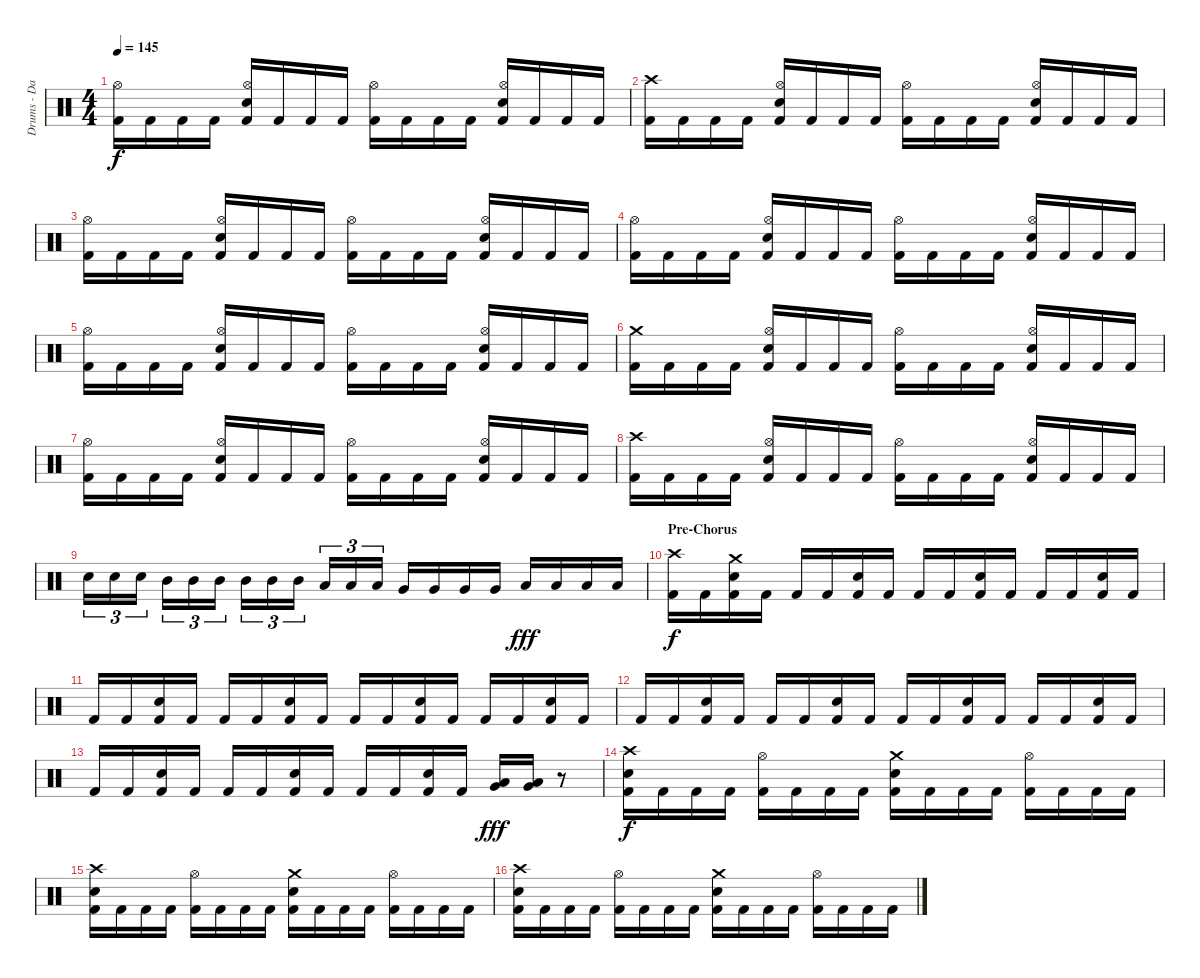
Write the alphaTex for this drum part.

\track ("Drums - Daniel Zimmermann" "Drums - Da") {instrument percussion}
\staff {score}
\articulation defaults
\ts (4 4)
\tempo 145
\clef neutral
\ks c
("Kick (hit) 2" "Hi-Hat (open)").16{dy f} "Kick (hit) 2".16 "Kick (hit) 2".16 "Kick (hit) 2".16 ("Kick (hit) 2" "Electric Snare (hit)" "Hi-Hat (open)").16 "Kick (hit) 2".16 "Kick (hit) 2".16 "Kick (hit) 2".16 ("Kick (hit) 2" "Hi-Hat (open)").16 "Kick (hit) 2".16 "Kick (hit) 2".16 "Kick (hit) 2".16 ("Kick (hit) 2" "Electric Snare (hit)" "Hi-Hat (open)").16 "Kick (hit) 2".16 "Kick (hit) 2".16 "Kick (hit) 2".16 |
("Kick (hit) 2" "Crash high (hit)").16 "Kick (hit) 2".16 "Kick (hit) 2".16 "Kick (hit) 2".16 ("Kick (hit) 2" "Electric Snare (hit)" "Hi-Hat (open)").16 "Kick (hit) 2".16 "Kick (hit) 2".16 "Kick (hit) 2".16 ("Kick (hit) 2" "Hi-Hat (open)").16 "Kick (hit) 2".16 "Kick (hit) 2".16 "Kick (hit) 2".16 ("Kick (hit) 2" "Electric Snare (hit)" "Hi-Hat (open)").16 "Kick (hit) 2".16 "Kick (hit) 2".16 "Kick (hit) 2".16 |
("Kick (hit) 2" "Hi-Hat (open)").16 "Kick (hit) 2".16 "Kick (hit) 2".16 "Kick (hit) 2".16 ("Kick (hit) 2" "Electric Snare (hit)" "Hi-Hat (open)").16 "Kick (hit) 2".16 "Kick (hit) 2".16 "Kick (hit) 2".16 ("Kick (hit) 2" "Hi-Hat (open)").16 "Kick (hit) 2".16 "Kick (hit) 2".16 "Kick (hit) 2".16 ("Kick (hit) 2" "Electric Snare (hit)" "Hi-Hat (open)").16 "Kick (hit) 2".16 "Kick (hit) 2".16 "Kick (hit) 2".16 |
("Kick (hit) 2" "Hi-Hat (open)").16 "Kick (hit) 2".16 "Kick (hit) 2".16 "Kick (hit) 2".16 ("Kick (hit) 2" "Electric Snare (hit)" "Hi-Hat (open)").16 "Kick (hit) 2".16 "Kick (hit) 2".16 "Kick (hit) 2".16 ("Kick (hit) 2" "Hi-Hat (open)").16 "Kick (hit) 2".16 "Kick (hit) 2".16 "Kick (hit) 2".16 ("Kick (hit) 2" "Electric Snare (hit)" "Hi-Hat (open)").16 "Kick (hit) 2".16 "Kick (hit) 2".16 "Kick (hit) 2".16 |
("Kick (hit) 2" "Hi-Hat (open)").16 "Kick (hit) 2".16 "Kick (hit) 2".16 "Kick (hit) 2".16 ("Kick (hit) 2" "Electric Snare (hit)" "Hi-Hat (open)").16 "Kick (hit) 2".16 "Kick (hit) 2".16 "Kick (hit) 2".16 ("Kick (hit) 2" "Hi-Hat (open)").16 "Kick (hit) 2".16 "Kick (hit) 2".16 "Kick (hit) 2".16 ("Kick (hit) 2" "Electric Snare (hit)" "Hi-Hat (open)").16 "Kick (hit) 2".16 "Kick (hit) 2".16 "Kick (hit) 2".16 |
("Kick (hit) 2" "Crash medium (hit)").16 "Kick (hit) 2".16 "Kick (hit) 2".16 "Kick (hit) 2".16 ("Kick (hit) 2" "Electric Snare (hit)" "Hi-Hat (open)").16 "Kick (hit) 2".16 "Kick (hit) 2".16 "Kick (hit) 2".16 ("Kick (hit) 2" "Hi-Hat (open)").16 "Kick (hit) 2".16 "Kick (hit) 2".16 "Kick (hit) 2".16 ("Kick (hit) 2" "Electric Snare (hit)" "Hi-Hat (open)").16 "Kick (hit) 2".16 "Kick (hit) 2".16 "Kick (hit) 2".16 |
("Kick (hit) 2" "Hi-Hat (open)").16 "Kick (hit) 2".16 "Kick (hit) 2".16 "Kick (hit) 2".16 ("Kick (hit) 2" "Electric Snare (hit)" "Hi-Hat (open)").16 "Kick (hit) 2".16 "Kick (hit) 2".16 "Kick (hit) 2".16 ("Kick (hit) 2" "Hi-Hat (open)").16 "Kick (hit) 2".16 "Kick (hit) 2".16 "Kick (hit) 2".16 ("Kick (hit) 2" "Electric Snare (hit)" "Hi-Hat (open)").16 "Kick (hit) 2".16 "Kick (hit) 2".16 "Kick (hit) 2".16 |
("Kick (hit) 2" "Crash high (hit)").16 "Kick (hit) 2".16 "Kick (hit) 2".16 "Kick (hit) 2".16 ("Kick (hit) 2" "Electric Snare (hit)" "Hi-Hat (open)").16 "Kick (hit) 2".16 "Kick (hit) 2".16 "Kick (hit) 2".16 ("Kick (hit) 2" "Hi-Hat (open)").16 "Kick (hit) 2".16 "Kick (hit) 2".16 "Kick (hit) 2".16 ("Kick (hit) 2" "Electric Snare (hit)" "Hi-Hat (open)").16 "Kick (hit) 2".16 "Kick (hit) 2".16 "Kick (hit) 2".16 |
"Electric Snare (hit)".16{tu (3 2)} "Electric Snare (hit)".16{tu (3 2)} "Electric Snare (hit)".16{tu (3 2)} "Mid Tom (hit)".16{tu (3 2)} "Mid Tom (hit)".16{tu (3 2)} "Mid Tom (hit)".16{tu (3 2)} "Mid Tom (hit)".16{tu (3 2)} "Mid Tom (hit)".16{tu (3 2)} "Mid Tom (hit)".16{tu (3 2)} "Low Tom (hit)".16{tu (3 2)} "Low Tom (hit)".16{tu (3 2)} "Low Tom (hit)".16{tu (3 2)} "Very Low Tom (hit)".16 "Very Low Tom (hit)".16 "Very Low Tom (hit)".16 "Very Low Tom (hit)".16 "Low Floor Tom (hit)".16{dy fff} "Low Floor Tom (hit)".16 "Low Floor Tom (hit)".16 "Low Floor Tom (hit)".16 |
\section ("" "Pre-Chorus")
("Kick (hit) 2" "Crash high (hit)").16{dy f} "Kick (hit) 2".16 ("Kick (hit) 2" "Electric Snare (hit)" "Crash medium (hit)").16 "Kick (hit) 2".16 "Kick (hit) 2".16 "Kick (hit) 2".16 ("Kick (hit) 2" "Electric Snare (hit)").16 "Kick (hit) 2".16 "Kick (hit) 2".16 "Kick (hit) 2".16 ("Kick (hit) 2" "Electric Snare (hit)").16 "Kick (hit) 2".16 "Kick (hit) 2".16 "Kick (hit) 2".16 ("Kick (hit) 2" "Electric Snare (hit)").16 "Kick (hit) 2".16 |
"Kick (hit) 2".16 "Kick (hit) 2".16 ("Kick (hit) 2" "Electric Snare (hit)").16 "Kick (hit) 2".16 "Kick (hit) 2".16 "Kick (hit) 2".16 ("Kick (hit) 2" "Electric Snare (hit)").16 "Kick (hit) 2".16 "Kick (hit) 2".16 "Kick (hit) 2".16 ("Kick (hit) 2" "Electric Snare (hit)").16 "Kick (hit) 2".16 "Kick (hit) 2".16 "Kick (hit) 2".16 ("Kick (hit) 2" "Electric Snare (hit)").16 "Kick (hit) 2".16 |
"Kick (hit) 2".16 "Kick (hit) 2".16 ("Kick (hit) 2" "Electric Snare (hit)").16 "Kick (hit) 2".16 "Kick (hit) 2".16 "Kick (hit) 2".16 ("Kick (hit) 2" "Electric Snare (hit)").16 "Kick (hit) 2".16 "Kick (hit) 2".16 "Kick (hit) 2".16 ("Kick (hit) 2" "Electric Snare (hit)").16 "Kick (hit) 2".16 "Kick (hit) 2".16 "Kick (hit) 2".16 ("Kick (hit) 2" "Electric Snare (hit)").16 "Kick (hit) 2".16 |
"Kick (hit) 2".16 "Kick (hit) 2".16 ("Kick (hit) 2" "Electric Snare (hit)").16 "Kick (hit) 2".16 "Kick (hit) 2".16 "Kick (hit) 2".16 ("Kick (hit) 2" "Electric Snare (hit)").16 "Kick (hit) 2".16 "Kick (hit) 2".16 "Kick (hit) 2".16 ("Kick (hit) 2" "Electric Snare (hit)").16 "Kick (hit) 2".16 ("Low Tom (hit)" "Very Low Tom (hit)").16{dy fff} ("Low Tom (hit)" "Very Low Tom (hit)").16 r.8 |
("Kick (hit) 2" "Electric Snare (hit)" "Crash high (hit)").16{dy f} "Kick (hit) 2".16 "Kick (hit) 2".16 "Kick (hit) 2".16 ("Kick (hit) 2" "Hi-Hat (open)").16 "Kick (hit) 2".16 "Kick (hit) 2".16 "Kick (hit) 2".16 ("Kick (hit) 2" "Electric Snare (hit)" "Crash medium (hit)").16 "Kick (hit) 2".16 "Kick (hit) 2".16 "Kick (hit) 2".16 ("Kick (hit) 2" "Hi-Hat (open)").16 "Kick (hit) 2".16 "Kick (hit) 2".16 "Kick (hit) 2".16 |
("Kick (hit) 2" "Electric Snare (hit)" "Crash high (hit)").16 "Kick (hit) 2".16 "Kick (hit) 2".16 "Kick (hit) 2".16 ("Kick (hit) 2" "Hi-Hat (open)").16 "Kick (hit) 2".16 "Kick (hit) 2".16 "Kick (hit) 2".16 ("Kick (hit) 2" "Electric Snare (hit)" "Crash medium (hit)").16 "Kick (hit) 2".16 "Kick (hit) 2".16 "Kick (hit) 2".16 ("Kick (hit) 2" "Hi-Hat (open)").16 "Kick (hit) 2".16 "Kick (hit) 2".16 "Kick (hit) 2".16 |
("Kick (hit) 2" "Electric Snare (hit)" "Crash high (hit)").16 "Kick (hit) 2".16 "Kick (hit) 2".16 "Kick (hit) 2".16 ("Kick (hit) 2" "Hi-Hat (open)").16 "Kick (hit) 2".16 "Kick (hit) 2".16 "Kick (hit) 2".16 ("Kick (hit) 2" "Electric Snare (hit)" "Crash medium (hit)").16 "Kick (hit) 2".16 "Kick (hit) 2".16 "Kick (hit) 2".16 ("Kick (hit) 2" "Hi-Hat (open)").16 "Kick (hit) 2".16 "Kick (hit) 2".16 "Kick (hit) 2".16
